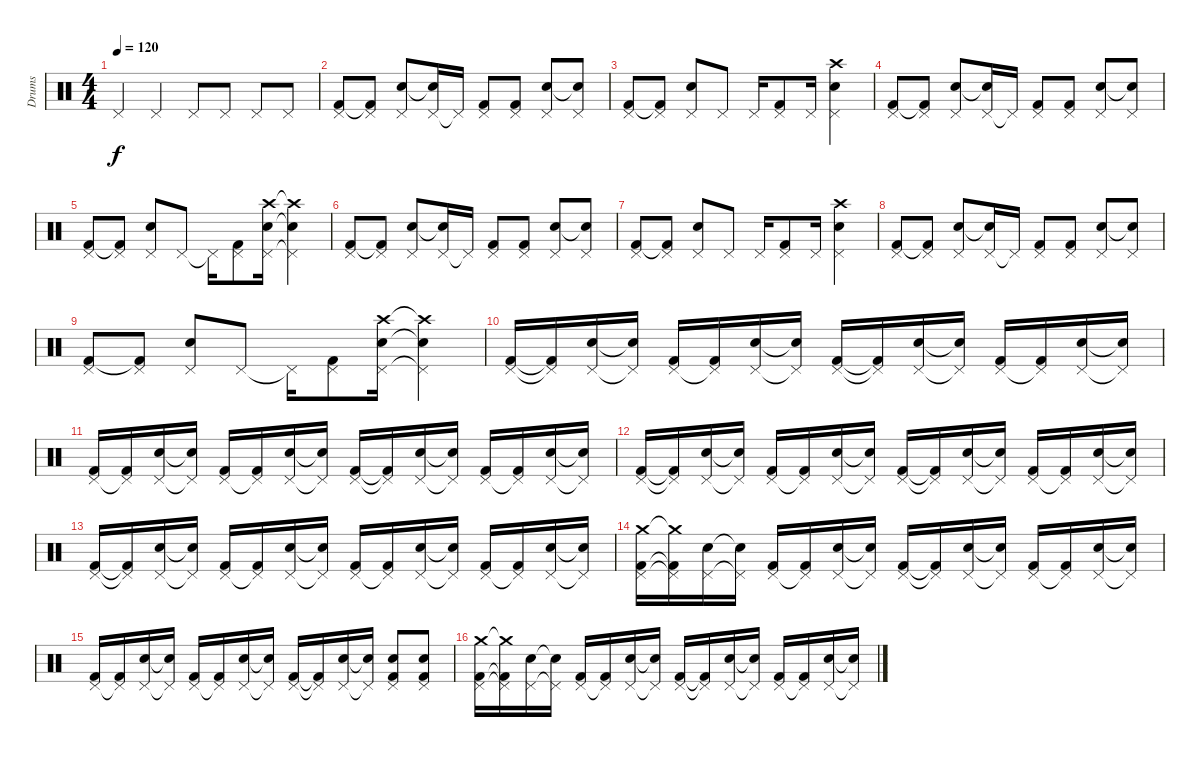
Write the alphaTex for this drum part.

\track ("Drums" "Drums") {instrument percussion}
\staff {score}
\articulation defaults
\ts (4 4)
\tempo 120
\clef neutral
\ks c "Pedal Hi-Hat (hit)".4{dy f} "Pedal Hi-Hat (hit)".4 "Pedal Hi-Hat (hit)".8 "Pedal Hi-Hat (hit)".8 "Pedal Hi-Hat (hit)".8 "Pedal Hi-Hat (hit)".8
|
("Pedal Hi-Hat (hit)" "Kick (hit) 2").8 ("Pedal Hi-Hat (hit)" "Kick (hit) 2"{t}).8 ("Pedal Hi-Hat (hit)" "Snare (hit) 2").8 ("Pedal Hi-Hat (hit)" "Snare (hit) 2"{t}).16 "Pedal Hi-Hat (hit)"{t}.16 ("Pedal Hi-Hat (hit)" "Kick (hit) 2").8 ("Pedal Hi-Hat (hit)" "Kick (hit) 2").8 ("Pedal Hi-Hat (hit)" "Snare (hit) 2").8 ("Pedal Hi-Hat (hit)" "Snare (hit) 2"{t}).8 |
("Pedal Hi-Hat (hit)" "Kick (hit) 2").8 ("Pedal Hi-Hat (hit)" "Kick (hit) 2"{t}).8 ("Pedal Hi-Hat (hit)" "Snare (hit) 2").8 "Pedal Hi-Hat (hit)".8 "Pedal Hi-Hat (hit)".16 ("Pedal Hi-Hat (hit)" "Kick (hit) 2").8 "Pedal Hi-Hat (hit)".16 ("Pedal Hi-Hat (hit)" "Crash high (hit)" "Snare (hit) 2").4 |
("Pedal Hi-Hat (hit)" "Kick (hit) 2").8 ("Pedal Hi-Hat (hit)" "Kick (hit) 2"{t}).8 ("Pedal Hi-Hat (hit)" "Snare (hit) 2").8 ("Pedal Hi-Hat (hit)" "Snare (hit) 2"{t}).16 "Pedal Hi-Hat (hit)"{t}.16 ("Pedal Hi-Hat (hit)" "Kick (hit) 2").8 ("Pedal Hi-Hat (hit)" "Kick (hit) 2").8 ("Pedal Hi-Hat (hit)" "Snare (hit) 2").8 ("Pedal Hi-Hat (hit)" "Snare (hit) 2"{t}).8 |
("Pedal Hi-Hat (hit)" "Kick (hit) 2").8 ("Pedal Hi-Hat (hit)" "Kick (hit) 2"{t}).8 ("Pedal Hi-Hat (hit)" "Snare (hit) 2").8 "Pedal Hi-Hat (hit)".8 "Pedal Hi-Hat (hit)"{t}.16 ("Pedal Hi-Hat (hit)" "Kick (hit) 2").8 ("Pedal Hi-Hat (hit)" "Crash high (hit)" "Snare (hit) 2").16 ("Pedal Hi-Hat (hit)"{t} "Crash high (hit)"{t} "Snare (hit) 2"{t}).4 |
("Pedal Hi-Hat (hit)" "Kick (hit) 2").8 ("Pedal Hi-Hat (hit)" "Kick (hit) 2"{t}).8 ("Pedal Hi-Hat (hit)" "Snare (hit) 2").8 ("Pedal Hi-Hat (hit)" "Snare (hit) 2"{t}).16 "Pedal Hi-Hat (hit)"{t}.16 ("Pedal Hi-Hat (hit)" "Kick (hit) 2").8 ("Pedal Hi-Hat (hit)" "Kick (hit) 2").8 ("Pedal Hi-Hat (hit)" "Snare (hit) 2").8 ("Pedal Hi-Hat (hit)" "Snare (hit) 2"{t}).8 |
("Pedal Hi-Hat (hit)" "Kick (hit) 2").8 ("Pedal Hi-Hat (hit)" "Kick (hit) 2"{t}).8 ("Pedal Hi-Hat (hit)" "Snare (hit) 2").8 "Pedal Hi-Hat (hit)".8 "Pedal Hi-Hat (hit)".16 ("Pedal Hi-Hat (hit)" "Kick (hit) 2").8 "Pedal Hi-Hat (hit)".16 ("Pedal Hi-Hat (hit)" "Crash high (hit)" "Snare (hit) 2").4 |
("Pedal Hi-Hat (hit)" "Kick (hit) 2").8 ("Pedal Hi-Hat (hit)" "Kick (hit) 2"{t}).8 ("Pedal Hi-Hat (hit)" "Snare (hit) 2").8 ("Pedal Hi-Hat (hit)" "Snare (hit) 2"{t}).16 "Pedal Hi-Hat (hit)"{t}.16 ("Pedal Hi-Hat (hit)" "Kick (hit) 2").8 ("Pedal Hi-Hat (hit)" "Kick (hit) 2").8 ("Pedal Hi-Hat (hit)" "Snare (hit) 2").8 ("Pedal Hi-Hat (hit)" "Snare (hit) 2"{t}).8 |
("Pedal Hi-Hat (hit)" "Kick (hit) 2").8 ("Pedal Hi-Hat (hit)" "Kick (hit) 2"{t}).8 ("Pedal Hi-Hat (hit)" "Snare (hit) 2").8 "Pedal Hi-Hat (hit)".8 "Pedal Hi-Hat (hit)"{t}.16 ("Pedal Hi-Hat (hit)" "Kick (hit) 2").8 ("Pedal Hi-Hat (hit)" "Crash high (hit)" "Snare (hit) 2").16 ("Pedal Hi-Hat (hit)"{t} "Crash high (hit)"{t} "Snare (hit) 2"{t}).4 |
("Pedal Hi-Hat (hit)" "Kick (hit) 2").16 ("Pedal Hi-Hat (hit)"{t} "Kick (hit) 2"{t}).16 ("Pedal Hi-Hat (hit)" "Snare (hit) 2").16 ("Pedal Hi-Hat (hit)"{t} "Snare (hit) 2"{t}).16 ("Pedal Hi-Hat (hit)" "Kick (hit) 2").16 ("Pedal Hi-Hat (hit)"{t} "Kick (hit) 2").16 ("Pedal Hi-Hat (hit)" "Snare (hit) 2").16 ("Pedal Hi-Hat (hit)"{t} "Snare (hit) 2"{t}).16 ("Pedal Hi-Hat (hit)" "Kick (hit) 2").16 ("Pedal Hi-Hat (hit)"{t} "Kick (hit) 2"{t}).16 ("Pedal Hi-Hat (hit)" "Snare (hit) 2").16 ("Pedal Hi-Hat (hit)"{t} "Snare (hit) 2"{t}).16 ("Pedal Hi-Hat (hit)" "Kick (hit) 2").16 ("Pedal Hi-Hat (hit)"{t} "Kick (hit) 2").16 ("Pedal Hi-Hat (hit)" "Snare (hit) 2").16 ("Pedal Hi-Hat (hit)"{t} "Snare (hit) 2"{t}).16 |
("Pedal Hi-Hat (hit)" "Kick (hit) 2").16 ("Pedal Hi-Hat (hit)"{t} "Kick (hit) 2").16 ("Pedal Hi-Hat (hit)" "Snare (hit) 2").16 ("Pedal Hi-Hat (hit)"{t} "Snare (hit) 2"{t}).16 ("Pedal Hi-Hat (hit)" "Kick (hit) 2").16 ("Pedal Hi-Hat (hit)"{t} "Kick (hit) 2").16 ("Pedal Hi-Hat (hit)" "Snare (hit) 2").16 ("Pedal Hi-Hat (hit)"{t} "Snare (hit) 2"{t}).16 ("Pedal Hi-Hat (hit)" "Kick (hit) 2").16 ("Pedal Hi-Hat (hit)"{t} "Kick (hit) 2"{t}).16 ("Pedal Hi-Hat (hit)" "Snare (hit) 2").16 ("Pedal Hi-Hat (hit)"{t} "Snare (hit) 2"{t}).16 ("Pedal Hi-Hat (hit)" "Kick (hit) 2").16 ("Pedal Hi-Hat (hit)"{t} "Kick (hit) 2").16 ("Pedal Hi-Hat (hit)" "Snare (hit) 2").16 ("Pedal Hi-Hat (hit)"{t} "Snare (hit) 2"{t}).16 |
("Pedal Hi-Hat (hit)" "Kick (hit) 2").16 ("Pedal Hi-Hat (hit)"{t} "Kick (hit) 2"{t}).16 ("Pedal Hi-Hat (hit)" "Snare (hit) 2").16 ("Pedal Hi-Hat (hit)"{t} "Snare (hit) 2"{t}).16 ("Pedal Hi-Hat (hit)" "Kick (hit) 2").16 ("Pedal Hi-Hat (hit)"{t} "Kick (hit) 2").16 ("Pedal Hi-Hat (hit)" "Snare (hit) 2").16 ("Pedal Hi-Hat (hit)"{t} "Snare (hit) 2"{t}).16 ("Pedal Hi-Hat (hit)" "Kick (hit) 2").16 ("Pedal Hi-Hat (hit)"{t} "Kick (hit) 2"{t}).16 ("Pedal Hi-Hat (hit)" "Snare (hit) 2").16 ("Pedal Hi-Hat (hit)"{t} "Snare (hit) 2"{t}).16 ("Pedal Hi-Hat (hit)" "Kick (hit) 2").16 ("Pedal Hi-Hat (hit)"{t} "Kick (hit) 2").16 ("Pedal Hi-Hat (hit)" "Snare (hit) 2").16 ("Pedal Hi-Hat (hit)"{t} "Snare (hit) 2"{t}).16 |
("Pedal Hi-Hat (hit)" "Kick (hit) 2").16 ("Pedal Hi-Hat (hit)"{t} "Kick (hit) 2"{t}).16 ("Pedal Hi-Hat (hit)" "Snare (hit) 2").16 ("Pedal Hi-Hat (hit)"{t} "Snare (hit) 2"{t}).16 ("Pedal Hi-Hat (hit)" "Kick (hit) 2").16 ("Pedal Hi-Hat (hit)"{t} "Kick (hit) 2").16 ("Pedal Hi-Hat (hit)" "Snare (hit) 2").16 ("Pedal Hi-Hat (hit)"{t} "Snare (hit) 2"{t}).16 ("Pedal Hi-Hat (hit)" "Kick (hit) 2").16 ("Pedal Hi-Hat (hit)"{t} "Kick (hit) 2").16 ("Pedal Hi-Hat (hit)" "Snare (hit) 2").16 ("Pedal Hi-Hat (hit)"{t} "Snare (hit) 2"{t}).16 ("Pedal Hi-Hat (hit)" "Kick (hit) 2").16 ("Pedal Hi-Hat (hit)"{t} "Kick (hit) 2").16 ("Pedal Hi-Hat (hit)" "Snare (hit) 2").16 ("Pedal Hi-Hat (hit)"{t} "Snare (hit) 2"{t}).16 |
("Pedal Hi-Hat (hit)" "Crash medium (hit)" "Kick (hit) 2").16 ("Pedal Hi-Hat (hit)"{t} "Crash medium (hit)"{t} "Kick (hit) 2"{t}).16 ("Pedal Hi-Hat (hit)" "Snare (hit) 2").16 ("Pedal Hi-Hat (hit)"{t} "Snare (hit) 2"{t}).16 ("Pedal Hi-Hat (hit)" "Kick (hit) 2").16 ("Pedal Hi-Hat (hit)"{t} "Kick (hit) 2").16 ("Pedal Hi-Hat (hit)" "Snare (hit) 2").16 ("Pedal Hi-Hat (hit)"{t} "Snare (hit) 2"{t}).16 ("Pedal Hi-Hat (hit)" "Kick (hit) 2").16 ("Pedal Hi-Hat (hit)"{t} "Kick (hit) 2"{t}).16 ("Pedal Hi-Hat (hit)" "Snare (hit) 2").16 ("Pedal Hi-Hat (hit)"{t} "Snare (hit) 2"{t}).16 ("Pedal Hi-Hat (hit)" "Kick (hit) 2").16 ("Pedal Hi-Hat (hit)"{t} "Kick (hit) 2").16 ("Pedal Hi-Hat (hit)" "Snare (hit) 2").16 ("Pedal Hi-Hat (hit)"{t} "Snare (hit) 2"{t}).16 |
("Pedal Hi-Hat (hit)" "Kick (hit) 2").16 ("Pedal Hi-Hat (hit)"{t} "Kick (hit) 2").16 ("Pedal Hi-Hat (hit)" "Snare (hit) 2").16 ("Pedal Hi-Hat (hit)"{t} "Snare (hit) 2"{t}).16 ("Pedal Hi-Hat (hit)" "Kick (hit) 2").16 ("Pedal Hi-Hat (hit)"{t} "Kick (hit) 2").16 ("Pedal Hi-Hat (hit)" "Snare (hit) 2").16 ("Pedal Hi-Hat (hit)"{t} "Snare (hit) 2"{t}).16 ("Pedal Hi-Hat (hit)" "Kick (hit) 2").16 ("Pedal Hi-Hat (hit)"{t} "Kick (hit) 2"{t}).16 ("Pedal Hi-Hat (hit)" "Snare (hit) 2").16 ("Pedal Hi-Hat (hit)"{t} "Snare (hit) 2"{t}).16 ("Pedal Hi-Hat (hit)" "Snare (hit) 2" "Kick (hit) 2").8 ("Pedal Hi-Hat (hit)" "Snare (hit) 2" "Kick (hit) 2").8 |
("Pedal Hi-Hat (hit)" "Crash medium (hit)" "Kick (hit) 2").16 ("Pedal Hi-Hat (hit)"{t} "Crash medium (hit)"{t} "Kick (hit) 2"{t}).16 ("Pedal Hi-Hat (hit)" "Snare (hit) 2").16 ("Pedal Hi-Hat (hit)"{t} "Snare (hit) 2"{t}).16 ("Pedal Hi-Hat (hit)" "Kick (hit) 2").16 ("Pedal Hi-Hat (hit)"{t} "Kick (hit) 2").16 ("Pedal Hi-Hat (hit)" "Snare (hit) 2").16 ("Pedal Hi-Hat (hit)"{t} "Snare (hit) 2"{t}).16 ("Pedal Hi-Hat (hit)" "Kick (hit) 2").16 ("Pedal Hi-Hat (hit)"{t} "Kick (hit) 2"{t}).16 ("Pedal Hi-Hat (hit)" "Snare (hit) 2").16 ("Pedal Hi-Hat (hit)"{t} "Snare (hit) 2"{t}).16 ("Pedal Hi-Hat (hit)" "Kick (hit) 2").16 ("Pedal Hi-Hat (hit)"{t} "Kick (hit) 2").16 ("Pedal Hi-Hat (hit)" "Snare (hit) 2").16 ("Pedal Hi-Hat (hit)"{t} "Snare (hit) 2"{t}).16
